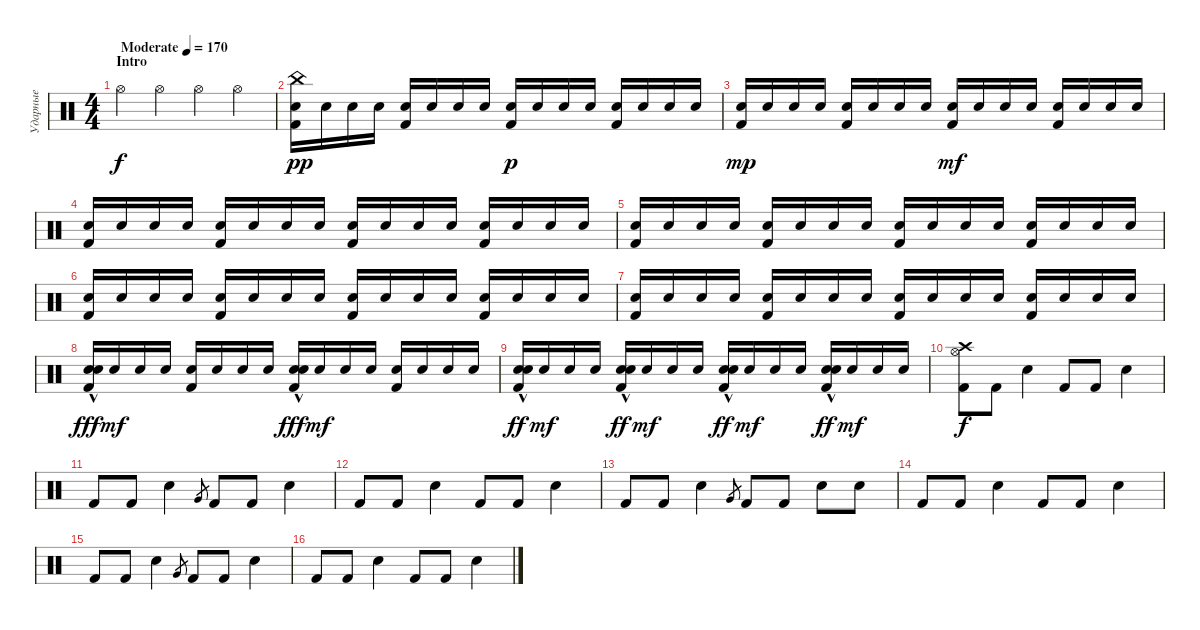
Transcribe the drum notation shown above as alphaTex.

\track ("Ударные" "Ударные") {instrument percussion}
\staff {score}
\articulation defaults
\ts (4 4)
\section ("" "Intro")
\tempo (170 "Moderate")
\clef neutral
\ks c "Hi-Hat (open)".4{dy f} "Hi-Hat (open)".4 "Hi-Hat (open)".4 "Hi-Hat (open)".4
|
("China (hit)" "Kick (hit) 2" "Electric Snare (hit)").16{dy pp} "Electric Snare (hit)".16 "Electric Snare (hit)".16 "Electric Snare (hit)".16 ("Kick (hit) 2" "Electric Snare (hit)").16 "Electric Snare (hit)".16 "Electric Snare (hit)".16 "Electric Snare (hit)".16 ("Kick (hit) 2" "Electric Snare (hit)").16{dy p} "Electric Snare (hit)".16 "Electric Snare (hit)".16 "Electric Snare (hit)".16 ("Kick (hit) 2" "Electric Snare (hit)").16 "Electric Snare (hit)".16 "Electric Snare (hit)".16 "Electric Snare (hit)".16 |
("Kick (hit) 2" "Electric Snare (hit)").16{dy mp} "Electric Snare (hit)".16 "Electric Snare (hit)".16 "Electric Snare (hit)".16 ("Kick (hit) 2" "Electric Snare (hit)").16 "Electric Snare (hit)".16 "Electric Snare (hit)".16 "Electric Snare (hit)".16 ("Kick (hit) 2" "Electric Snare (hit)").16{dy mf} "Electric Snare (hit)".16 "Electric Snare (hit)".16 "Electric Snare (hit)".16 ("Kick (hit) 2" "Electric Snare (hit)").16 "Electric Snare (hit)".16 "Electric Snare (hit)".16 "Electric Snare (hit)".16 |
("Kick (hit) 2" "Electric Snare (hit)").16 "Electric Snare (hit)".16 "Electric Snare (hit)".16 "Electric Snare (hit)".16 ("Kick (hit) 2" "Electric Snare (hit)").16 "Electric Snare (hit)".16 "Electric Snare (hit)".16 "Electric Snare (hit)".16 ("Kick (hit) 2" "Electric Snare (hit)").16 "Electric Snare (hit)".16 "Electric Snare (hit)".16 "Electric Snare (hit)".16 ("Kick (hit) 2" "Electric Snare (hit)").16 "Electric Snare (hit)".16 "Electric Snare (hit)".16 "Electric Snare (hit)".16 |
("Kick (hit) 2" "Electric Snare (hit)").16 "Electric Snare (hit)".16 "Electric Snare (hit)".16 "Electric Snare (hit)".16 ("Kick (hit) 2" "Electric Snare (hit)").16 "Electric Snare (hit)".16 "Electric Snare (hit)".16 "Electric Snare (hit)".16 ("Kick (hit) 2" "Electric Snare (hit)").16 "Electric Snare (hit)".16 "Electric Snare (hit)".16 "Electric Snare (hit)".16 ("Kick (hit) 2" "Electric Snare (hit)").16 "Electric Snare (hit)".16 "Electric Snare (hit)".16 "Electric Snare (hit)".16 |
("Kick (hit) 2" "Electric Snare (hit)").16 "Electric Snare (hit)".16 "Electric Snare (hit)".16 "Electric Snare (hit)".16 ("Kick (hit) 2" "Electric Snare (hit)").16 "Electric Snare (hit)".16 "Electric Snare (hit)".16 "Electric Snare (hit)".16 ("Kick (hit) 2" "Electric Snare (hit)").16 "Electric Snare (hit)".16 "Electric Snare (hit)".16 "Electric Snare (hit)".16 ("Kick (hit) 2" "Electric Snare (hit)").16 "Electric Snare (hit)".16 "Electric Snare (hit)".16 "Electric Snare (hit)".16 |
("Kick (hit) 2" "Electric Snare (hit)").16 "Electric Snare (hit)".16 "Electric Snare (hit)".16 "Electric Snare (hit)".16 ("Kick (hit) 2" "Electric Snare (hit)").16 "Electric Snare (hit)".16 "Electric Snare (hit)".16 "Electric Snare (hit)".16 ("Kick (hit) 2" "Electric Snare (hit)").16 "Electric Snare (hit)".16 "Electric Snare (hit)".16 "Electric Snare (hit)".16 ("Kick (hit) 2" "Electric Snare (hit)").16 "Electric Snare (hit)".16 "Electric Snare (hit)".16 "Electric Snare (hit)".16 |
("Kick (hit) 2" "Electric Snare (hit)"{hac} "Snare (hit) 2"{hac}).16{dy fff} "Electric Snare (hit)".16{dy mf} "Electric Snare (hit)".16 "Electric Snare (hit)".16 ("Kick (hit) 2" "Electric Snare (hit)").16 "Electric Snare (hit)".16 "Electric Snare (hit)".16 "Electric Snare (hit)".16 ("Kick (hit) 2" "Electric Snare (hit)"{hac} "Snare (hit) 2"{hac}).16{dy fff} "Electric Snare (hit)".16{dy mf} "Electric Snare (hit)".16 "Electric Snare (hit)".16 ("Kick (hit) 2" "Electric Snare (hit)").16 "Electric Snare (hit)".16 "Electric Snare (hit)".16 "Electric Snare (hit)".16 |
("Kick (hit) 2" "Electric Snare (hit)"{hac} "Snare (hit) 2").16{dy ff} "Electric Snare (hit)".16{dy mf} "Electric Snare (hit)".16 "Electric Snare (hit)".16 ("Kick (hit) 2" "Electric Snare (hit)"{hac} "Snare (hit) 2").16{dy ff} "Electric Snare (hit)".16{dy mf} "Electric Snare (hit)".16 "Electric Snare (hit)".16 ("Kick (hit) 2" "Electric Snare (hit)"{hac} "Snare (hit) 2").16{dy ff} "Electric Snare (hit)".16{dy mf} "Electric Snare (hit)".16 "Electric Snare (hit)".16 ("Kick (hit) 2" "Electric Snare (hit)"{hac} "Snare (hit) 2").16{dy ff} "Electric Snare (hit)".16{dy mf} "Electric Snare (hit)".16 "Electric Snare (hit)".16 |
("Kick (hit) 2" "Hi-Hat (open)" "Crash high (hit)").8{dy f} "Kick (hit) 2".8 "Electric Snare (hit)".4 "Kick (hit) 2".8 "Kick (hit) 2".8 "Electric Snare (hit)".4 |
"Kick (hit) 2".8 "Kick (hit) 2".8 "Electric Snare (hit)".4 "Very Low Tom (hit)".8{gr} "Kick (hit) 2".8 "Kick (hit) 2".8 "Electric Snare (hit)".4 |
"Kick (hit) 2".8 "Kick (hit) 2".8 "Electric Snare (hit)".4 "Kick (hit) 2".8 "Kick (hit) 2".8 "Electric Snare (hit)".4 |
"Kick (hit) 2".8 "Kick (hit) 2".8 "Electric Snare (hit)".4 "Very Low Tom (hit)".8{gr} "Kick (hit) 2".8 "Kick (hit) 2".8 "Electric Snare (hit)".8 "Electric Snare (hit)".8 |
"Kick (hit) 2".8 "Kick (hit) 2".8 "Electric Snare (hit)".4 "Kick (hit) 2".8 "Kick (hit) 2".8 "Electric Snare (hit)".4 |
"Kick (hit) 2".8 "Kick (hit) 2".8 "Electric Snare (hit)".4 "Very Low Tom (hit)".8{gr} "Kick (hit) 2".8 "Kick (hit) 2".8 "Electric Snare (hit)".4 |
"Kick (hit) 2".8 "Kick (hit) 2".8 "Electric Snare (hit)".4 "Kick (hit) 2".8 "Kick (hit) 2".8 "Electric Snare (hit)".4
